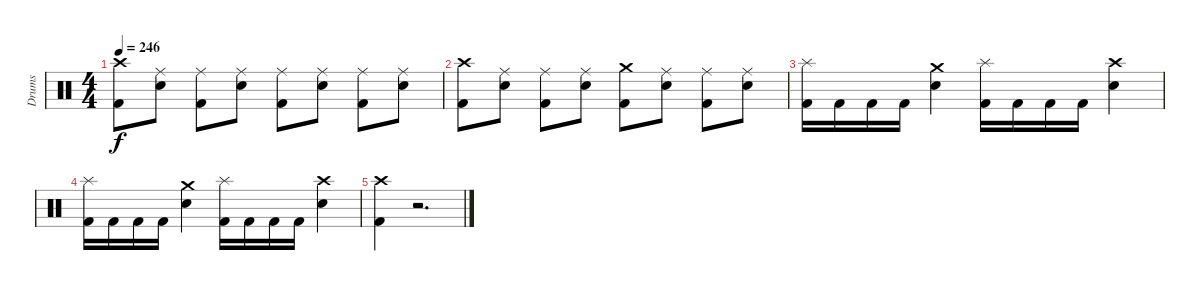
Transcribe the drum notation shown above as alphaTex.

\track ("Drums" "Drums") {instrument percussion}
\staff {score}
\articulation defaults
\ts (4 4)
\tempo 246
\clef neutral
\ks c
("Crash high (hit)" "Kick (hit) 2").8{dy f} ("Ride (middle)" "Snare (hit) 2").8 ("Ride (middle)" "Kick (hit) 2").8 ("Ride (middle)" "Snare (hit) 2").8 ("Ride (middle)" "Kick (hit) 2").8 ("Ride (middle)" "Snare (hit) 2").8 ("Ride (middle)" "Kick (hit) 2").8 ("Ride (middle)" "Snare (hit) 2").8 |
("Crash high (hit)" "Kick (hit) 2").8 ("Ride (middle)" "Snare (hit) 2").8 ("Ride (middle)" "Kick (hit) 2").8 ("Ride (middle)" "Snare (hit) 2").8 ("Crash medium (hit)" "Kick (hit) 2").8 ("Ride (middle)" "Snare (hit) 2").8 ("Ride (middle)" "Kick (hit) 2").8 ("Ride (middle)" "Snare (hit) 2").8 |
("Splash (hit)" "Kick (hit) 2").16 "Kick (hit) 2".16 "Kick (hit) 2".16 "Kick (hit) 2".16 ("Crash medium (hit)" "Snare (hit) 2").4 ("Splash (hit)" "Kick (hit) 2").16 "Kick (hit) 2".16 "Kick (hit) 2".16 "Kick (hit) 2".16 ("Crash high (hit)" "Snare (hit) 2").4 |
("Splash (hit)" "Kick (hit) 2").16 "Kick (hit) 2".16 "Kick (hit) 2".16 "Kick (hit) 2".16 ("Crash medium (hit)" "Snare (hit) 2").4 ("Splash (hit)" "Kick (hit) 2").16 "Kick (hit) 2".16 "Kick (hit) 2".16 "Kick (hit) 2".16 ("Crash high (hit)" "Snare (hit) 2").4 |
("Crash high (hit)" "Kick (hit) 2").4 r.2{d}
